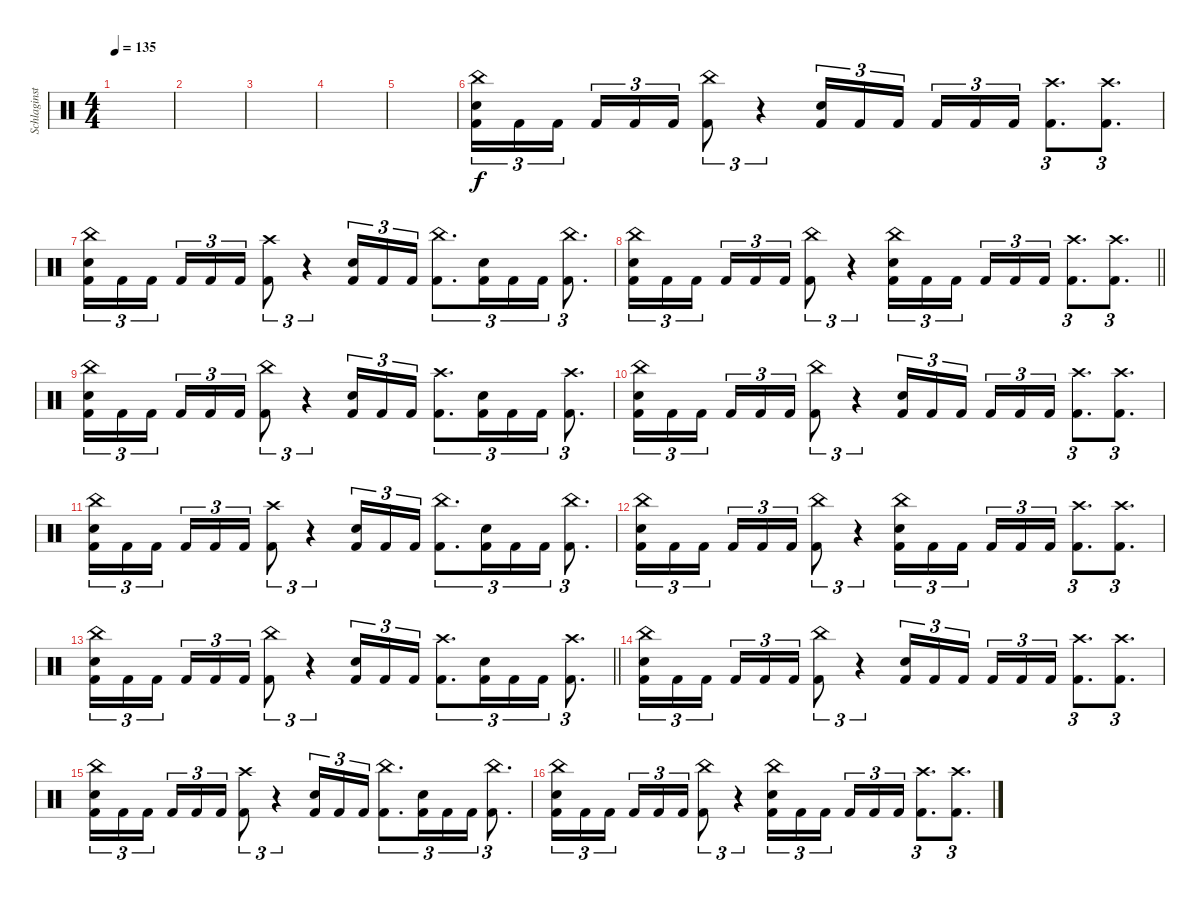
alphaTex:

\track ("Schlaginstrumente - Auswahl" "Schlaginst") {instrument percussion}
\staff {score}
\articulation defaults
\ts (4 4)
\tempo 135
\clef neutral
\ks c
|
|
|
|
|
("China (hit)" "Snare (hit) 2" "Kick (hit) 2").16{tu (3 2)} "Kick (hit) 2".16{tu (3 2)} "Kick (hit) 2".16{tu (3 2) beam splitsecondary} "Kick (hit) 2".16{tu (3 2)} "Kick (hit) 2".16{tu (3 2)} "Kick (hit) 2".16{tu (3 2)} ("China (hit)" "Kick (hit) 2").8{tu (3 2)} r.4{tu (3 2)} ("Snare (hit) 2" "Kick (hit) 2").16{tu (3 2)} "Kick (hit) 2".16{tu (3 2)} "Kick (hit) 2".16{tu (3 2) beam splitsecondary} "Kick (hit) 2".16{tu (3 2)} "Kick (hit) 2".16{tu (3 2)} "Kick (hit) 2".16{tu (3 2)} ("Crash high (hit)" "Kick (hit) 2").8{d tu (3 2)} ("Crash high (hit)" "Kick (hit) 2").8{d tu (3 2)} |
("China (hit)" "Snare (hit) 2" "Kick (hit) 2").16{tu (3 2)} "Kick (hit) 2".16{tu (3 2)} "Kick (hit) 2".16{tu (3 2) beam splitsecondary} "Kick (hit) 2".16{tu (3 2)} "Kick (hit) 2".16{tu (3 2)} "Kick (hit) 2".16{tu (3 2)} ("Crash high (hit)" "Kick (hit) 2").8{tu (3 2)} r.4{tu (3 2)} ("Snare (hit) 2" "Kick (hit) 2").16{tu (3 2)} "Kick (hit) 2".16{tu (3 2)} "Kick (hit) 2".16{tu (3 2)} ("China (hit)" "Kick (hit) 2").8{d tu (3 2)} ("Snare (hit) 2" "Kick (hit) 2").16{tu (3 2)} "Kick (hit) 2".16{tu (3 2)} "Kick (hit) 2".16{tu (3 2)} ("China (hit)" "Kick (hit) 2").8{d tu (3 2)} |
\barLineRight lightlight
("China (hit)" "Snare (hit) 2" "Kick (hit) 2").16{tu (3 2)} "Kick (hit) 2".16{tu (3 2)} "Kick (hit) 2".16{tu (3 2) beam splitsecondary} "Kick (hit) 2".16{tu (3 2)} "Kick (hit) 2".16{tu (3 2)} "Kick (hit) 2".16{tu (3 2)} ("China (hit)" "Kick (hit) 2").8{tu (3 2)} r.4{tu (3 2)} ("China (hit)" "Snare (hit) 2" "Kick (hit) 2").16{tu (3 2)} "Kick (hit) 2".16{tu (3 2)} "Kick (hit) 2".16{tu (3 2) beam splitsecondary} "Kick (hit) 2".16{tu (3 2)} "Kick (hit) 2".16{tu (3 2)} "Kick (hit) 2".16{tu (3 2)} ("Crash high (hit)" "Kick (hit) 2").8{d tu (3 2)} ("Crash high (hit)" "Kick (hit) 2").8{d tu (3 2)} |
("China (hit)" "Snare (hit) 2" "Kick (hit) 2").16{tu (3 2)} "Kick (hit) 2".16{tu (3 2)} "Kick (hit) 2".16{tu (3 2) beam splitsecondary} "Kick (hit) 2".16{tu (3 2)} "Kick (hit) 2".16{tu (3 2)} "Kick (hit) 2".16{tu (3 2)} ("China (hit)" "Kick (hit) 2").8{tu (3 2)} r.4{tu (3 2)} ("Snare (hit) 2" "Kick (hit) 2").16{tu (3 2)} "Kick (hit) 2".16{tu (3 2)} "Kick (hit) 2".16{tu (3 2)} ("Crash high (hit)" "Kick (hit) 2").8{d tu (3 2)} ("Snare (hit) 2" "Kick (hit) 2").16{tu (3 2)} "Kick (hit) 2".16{tu (3 2)} "Kick (hit) 2".16{tu (3 2)} ("Crash high (hit)" "Kick (hit) 2").8{d tu (3 2)} |
("China (hit)" "Snare (hit) 2" "Kick (hit) 2").16{tu (3 2)} "Kick (hit) 2".16{tu (3 2)} "Kick (hit) 2".16{tu (3 2) beam splitsecondary} "Kick (hit) 2".16{tu (3 2)} "Kick (hit) 2".16{tu (3 2)} "Kick (hit) 2".16{tu (3 2)} ("China (hit)" "Kick (hit) 2").8{tu (3 2)} r.4{tu (3 2)} ("Snare (hit) 2" "Kick (hit) 2").16{tu (3 2)} "Kick (hit) 2".16{tu (3 2)} "Kick (hit) 2".16{tu (3 2) beam splitsecondary} "Kick (hit) 2".16{tu (3 2)} "Kick (hit) 2".16{tu (3 2)} "Kick (hit) 2".16{tu (3 2)} ("Crash high (hit)" "Kick (hit) 2").8{d tu (3 2)} ("Crash high (hit)" "Kick (hit) 2").8{d tu (3 2)} |
("China (hit)" "Snare (hit) 2" "Kick (hit) 2").16{tu (3 2)} "Kick (hit) 2".16{tu (3 2)} "Kick (hit) 2".16{tu (3 2) beam splitsecondary} "Kick (hit) 2".16{tu (3 2)} "Kick (hit) 2".16{tu (3 2)} "Kick (hit) 2".16{tu (3 2)} ("Crash high (hit)" "Kick (hit) 2").8{tu (3 2)} r.4{tu (3 2)} ("Snare (hit) 2" "Kick (hit) 2").16{tu (3 2)} "Kick (hit) 2".16{tu (3 2)} "Kick (hit) 2".16{tu (3 2)} ("China (hit)" "Kick (hit) 2").8{d tu (3 2)} ("Snare (hit) 2" "Kick (hit) 2").16{tu (3 2)} "Kick (hit) 2".16{tu (3 2)} "Kick (hit) 2".16{tu (3 2)} ("China (hit)" "Kick (hit) 2").8{d tu (3 2)} |
("China (hit)" "Snare (hit) 2" "Kick (hit) 2").16{tu (3 2)} "Kick (hit) 2".16{tu (3 2)} "Kick (hit) 2".16{tu (3 2) beam splitsecondary} "Kick (hit) 2".16{tu (3 2)} "Kick (hit) 2".16{tu (3 2)} "Kick (hit) 2".16{tu (3 2)} ("China (hit)" "Kick (hit) 2").8{tu (3 2)} r.4{tu (3 2)} ("China (hit)" "Snare (hit) 2" "Kick (hit) 2").16{tu (3 2)} "Kick (hit) 2".16{tu (3 2)} "Kick (hit) 2".16{tu (3 2) beam splitsecondary} "Kick (hit) 2".16{tu (3 2)} "Kick (hit) 2".16{tu (3 2)} "Kick (hit) 2".16{tu (3 2)} ("Crash high (hit)" "Kick (hit) 2").8{d tu (3 2)} ("Crash high (hit)" "Kick (hit) 2").8{d tu (3 2)} |
\barLineRight lightlight
("China (hit)" "Snare (hit) 2" "Kick (hit) 2").16{tu (3 2)} "Kick (hit) 2".16{tu (3 2)} "Kick (hit) 2".16{tu (3 2) beam splitsecondary} "Kick (hit) 2".16{tu (3 2)} "Kick (hit) 2".16{tu (3 2)} "Kick (hit) 2".16{tu (3 2)} ("China (hit)" "Kick (hit) 2").8{tu (3 2)} r.4{tu (3 2)} ("Snare (hit) 2" "Kick (hit) 2").16{tu (3 2)} "Kick (hit) 2".16{tu (3 2)} "Kick (hit) 2".16{tu (3 2)} ("Crash high (hit)" "Kick (hit) 2").8{d tu (3 2)} ("Snare (hit) 2" "Kick (hit) 2").16{tu (3 2)} "Kick (hit) 2".16{tu (3 2)} "Kick (hit) 2".16{tu (3 2)} ("Crash high (hit)" "Kick (hit) 2").8{d tu (3 2)} |
("China (hit)" "Snare (hit) 2" "Kick (hit) 2").16{tu (3 2)} "Kick (hit) 2".16{tu (3 2)} "Kick (hit) 2".16{tu (3 2) beam splitsecondary} "Kick (hit) 2".16{tu (3 2)} "Kick (hit) 2".16{tu (3 2)} "Kick (hit) 2".16{tu (3 2)} ("China (hit)" "Kick (hit) 2").8{tu (3 2)} r.4{tu (3 2)} ("Snare (hit) 2" "Kick (hit) 2").16{tu (3 2)} "Kick (hit) 2".16{tu (3 2)} "Kick (hit) 2".16{tu (3 2) beam splitsecondary} "Kick (hit) 2".16{tu (3 2)} "Kick (hit) 2".16{tu (3 2)} "Kick (hit) 2".16{tu (3 2)} ("Crash high (hit)" "Kick (hit) 2").8{d tu (3 2)} ("Crash high (hit)" "Kick (hit) 2").8{d tu (3 2)} |
("China (hit)" "Snare (hit) 2" "Kick (hit) 2").16{tu (3 2)} "Kick (hit) 2".16{tu (3 2)} "Kick (hit) 2".16{tu (3 2) beam splitsecondary} "Kick (hit) 2".16{tu (3 2)} "Kick (hit) 2".16{tu (3 2)} "Kick (hit) 2".16{tu (3 2)} ("Crash high (hit)" "Kick (hit) 2").8{tu (3 2)} r.4{tu (3 2)} ("Snare (hit) 2" "Kick (hit) 2").16{tu (3 2)} "Kick (hit) 2".16{tu (3 2)} "Kick (hit) 2".16{tu (3 2)} ("China (hit)" "Kick (hit) 2").8{d tu (3 2)} ("Snare (hit) 2" "Kick (hit) 2").16{tu (3 2)} "Kick (hit) 2".16{tu (3 2)} "Kick (hit) 2".16{tu (3 2)} ("China (hit)" "Kick (hit) 2").8{d tu (3 2)} |
("China (hit)" "Snare (hit) 2" "Kick (hit) 2").16{tu (3 2)} "Kick (hit) 2".16{tu (3 2)} "Kick (hit) 2".16{tu (3 2) beam splitsecondary} "Kick (hit) 2".16{tu (3 2)} "Kick (hit) 2".16{tu (3 2)} "Kick (hit) 2".16{tu (3 2)} ("China (hit)" "Kick (hit) 2").8{tu (3 2)} r.4{tu (3 2)} ("China (hit)" "Snare (hit) 2" "Kick (hit) 2").16{tu (3 2)} "Kick (hit) 2".16{tu (3 2)} "Kick (hit) 2".16{tu (3 2) beam splitsecondary} "Kick (hit) 2".16{tu (3 2)} "Kick (hit) 2".16{tu (3 2)} "Kick (hit) 2".16{tu (3 2)} ("Crash high (hit)" "Kick (hit) 2").8{d tu (3 2)} ("Crash high (hit)" "Kick (hit) 2").8{d tu (3 2)}
